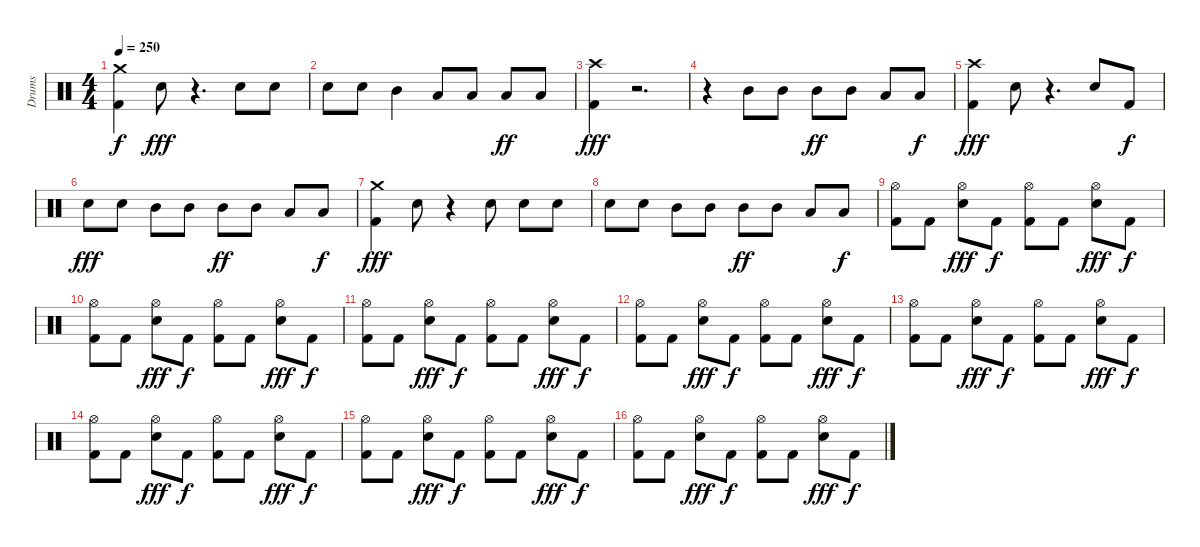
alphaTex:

\track ("Drums" "Drums") {instrument percussion}
\staff {score}
\articulation defaults
\ts (4 4)
\tempo 250
\clef neutral
\ks c
("Crash medium (hit)" "Kick (hit) 2").4{dy f} "Snare (hit) 2".8{dy fff} r.4{d} "Snare (hit) 2".8 "Snare (hit) 2".8 |
"Snare (hit) 2".8 "Snare (hit) 2".8 "Mid Tom (hit)".4 "Low Tom (hit)".8 "Low Tom (hit)".8 "Low Tom (hit)".8{dy ff} "Low Tom (hit)".8 |
("Crash high (hit)" "Kick (hit) 2").4{dy fff} r.2{d} |
r.4 "Mid Tom (hit)".8 "Mid Tom (hit)".8 "Mid Tom (hit)".8{dy ff} "Mid Tom (hit)".8 "Low Tom (hit)".8 "Low Tom (hit)".8{dy f} |
("Crash high (hit)" "Kick (hit) 2").4{dy fff} "Snare (hit) 2".8 r.4{d} "Snare (hit) 2".8 "Kick (hit) 2".8{dy f} |
"Snare (hit) 2".8{dy fff} "Snare (hit) 2".8 "Mid Tom (hit)".8 "Mid Tom (hit)".8 "Mid Tom (hit)".8{dy ff} "Mid Tom (hit)".8 "Low Tom (hit)".8 "Low Tom (hit)".8{dy f} |
("Crash medium (hit)" "Kick (hit) 2").4{dy fff} "Snare (hit) 2".8 r.4 "Snare (hit) 2".8 "Snare (hit) 2".8 "Snare (hit) 2".8 |
"Snare (hit) 2".8 "Snare (hit) 2".8 "Mid Tom (hit)".8 "Mid Tom (hit)".8 "Mid Tom (hit)".8{dy ff} "Mid Tom (hit)".8 "Low Tom (hit)".8 "Low Tom (hit)".8{dy f} |
("Kick (hit) 2" "Hi-Hat (open)").8 "Kick (hit) 2".8 ("Hi-Hat (open)" "Snare (hit) 2").8{dy fff} "Kick (hit) 2".8{dy f} ("Hi-Hat (open)" "Kick (hit) 2").8 "Kick (hit) 2".8 ("Hi-Hat (open)" "Snare (hit) 2").8{dy fff} "Kick (hit) 2".8{dy f} |
("Kick (hit) 2" "Hi-Hat (open)").8 "Kick (hit) 2".8 ("Hi-Hat (open)" "Snare (hit) 2").8{dy fff} "Kick (hit) 2".8{dy f} ("Hi-Hat (open)" "Kick (hit) 2").8 "Kick (hit) 2".8 ("Hi-Hat (open)" "Snare (hit) 2").8{dy fff} "Kick (hit) 2".8{dy f} |
("Kick (hit) 2" "Hi-Hat (open)").8 "Kick (hit) 2".8 ("Hi-Hat (open)" "Snare (hit) 2").8{dy fff} "Kick (hit) 2".8{dy f} ("Hi-Hat (open)" "Kick (hit) 2").8 "Kick (hit) 2".8 ("Hi-Hat (open)" "Snare (hit) 2").8{dy fff} "Kick (hit) 2".8{dy f} |
("Kick (hit) 2" "Hi-Hat (open)").8 "Kick (hit) 2".8 ("Hi-Hat (open)" "Snare (hit) 2").8{dy fff} "Kick (hit) 2".8{dy f} ("Hi-Hat (open)" "Kick (hit) 2").8 "Kick (hit) 2".8 ("Hi-Hat (open)" "Snare (hit) 2").8{dy fff} "Kick (hit) 2".8{dy f} |
("Kick (hit) 2" "Hi-Hat (open)").8 "Kick (hit) 2".8 ("Hi-Hat (open)" "Snare (hit) 2").8{dy fff} "Kick (hit) 2".8{dy f} ("Hi-Hat (open)" "Kick (hit) 2").8 "Kick (hit) 2".8 ("Hi-Hat (open)" "Snare (hit) 2").8{dy fff} "Kick (hit) 2".8{dy f} |
("Kick (hit) 2" "Hi-Hat (open)").8 "Kick (hit) 2".8 ("Hi-Hat (open)" "Snare (hit) 2").8{dy fff} "Kick (hit) 2".8{dy f} ("Hi-Hat (open)" "Kick (hit) 2").8 "Kick (hit) 2".8 ("Hi-Hat (open)" "Snare (hit) 2").8{dy fff} "Kick (hit) 2".8{dy f} |
("Kick (hit) 2" "Hi-Hat (open)").8 "Kick (hit) 2".8 ("Hi-Hat (open)" "Snare (hit) 2").8{dy fff} "Kick (hit) 2".8{dy f} ("Hi-Hat (open)" "Kick (hit) 2").8 "Kick (hit) 2".8 ("Hi-Hat (open)" "Snare (hit) 2").8{dy fff} "Kick (hit) 2".8{dy f} |
("Kick (hit) 2" "Hi-Hat (open)").8 "Kick (hit) 2".8 ("Hi-Hat (open)" "Snare (hit) 2").8{dy fff} "Kick (hit) 2".8{dy f} ("Hi-Hat (open)" "Kick (hit) 2").8 "Kick (hit) 2".8 ("Hi-Hat (open)" "Snare (hit) 2").8{dy fff} "Kick (hit) 2".8{dy f}
